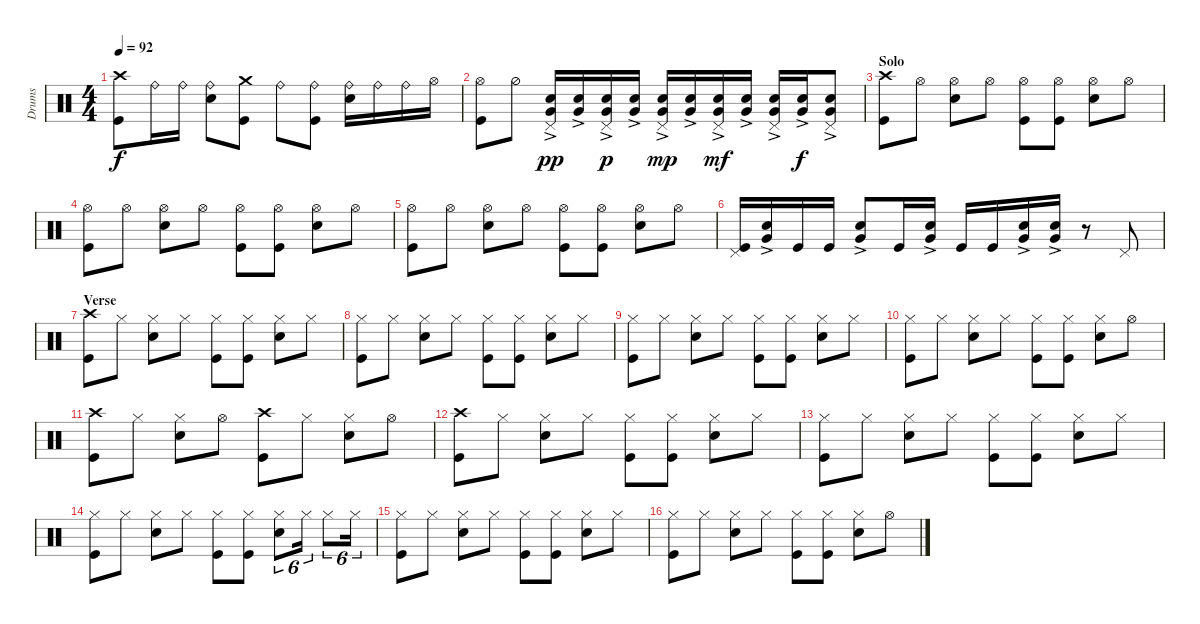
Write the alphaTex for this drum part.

\track ("Drums" "Drums") {instrument percussion}
\staff {score}
\articulation defaults
\ts (4 4)
\tempo 92
\clef neutral
\ks c
("Kick (hit)" "Crash high (hit)").8{dy f} "Ride (bell)".16 "Ride (bell)".16 ("Ride (bell)" "Snare (hit) 2").8 ("Crash medium (hit)" "Kick (hit)").8 "Ride (bell)".8 ("Ride (bell)" "Kick (hit)").8 ("Ride (bell)" "Snare (hit) 2").16 "Ride (bell)".16 "Ride (bell)".16 "Hi-Hat (open)".16 |
("Kick (hit)" "Hi-Hat (open)").8 "Hi-Hat (half)".8 ("Snare (hit) 2" "Very Low Tom (hit)"{ac} "Pedal Hi-Hat (hit)").16{dy pp} ("Snare (hit) 2" "Very Low Tom (hit)"{ac}).16 ("Snare (hit) 2" "Very Low Tom (hit)"{ac} "Pedal Hi-Hat (hit)").16{dy p} ("Snare (hit) 2" "Very Low Tom (hit)"{ac}).16 ("Snare (hit) 2" "Very Low Tom (hit)"{ac} "Pedal Hi-Hat (hit)").16{dy mp} ("Snare (hit) 2" "Very Low Tom (hit)"{ac}).16 ("Snare (hit) 2" "Very Low Tom (hit)"{ac} "Pedal Hi-Hat (hit)").16{dy mf} ("Snare (hit) 2" "Very Low Tom (hit)"{ac}).16 ("Snare (hit) 2" "Very Low Tom (hit)"{ac} "Pedal Hi-Hat (hit)").16 ("Snare (hit) 2" "Very Low Tom (hit)"{ac}).16{dy f} ("Snare (hit) 2" "Very Low Tom (hit)"{ac} "Pedal Hi-Hat (hit)").8 |
\section ("" "Solo")
("Kick (hit)" "Crash high (hit)").8 "Hi-Hat (open)".8 ("Hi-Hat (open)" "Snare (hit) 2").8 "Hi-Hat (open)".8 ("Hi-Hat (open)" "Kick (hit)").8 ("Hi-Hat (open)" "Kick (hit)").8 ("Hi-Hat (open)" "Snare (hit) 2").8 "Hi-Hat (open)".8 |
("Kick (hit)" "Hi-Hat (open)").8 "Hi-Hat (open)".8 ("Hi-Hat (open)" "Snare (hit) 2").8 "Hi-Hat (open)".8 ("Hi-Hat (open)" "Kick (hit)").8 ("Hi-Hat (open)" "Kick (hit)").8 ("Hi-Hat (open)" "Snare (hit) 2").8 "Hi-Hat (open)".8 |
("Kick (hit)" "Hi-Hat (open)").8 "Hi-Hat (open)".8 ("Hi-Hat (open)" "Snare (hit) 2").8 "Hi-Hat (open)".8 ("Hi-Hat (open)" "Kick (hit)").8 ("Hi-Hat (open)" "Kick (hit)").8 ("Hi-Hat (open)" "Snare (hit) 2").8 "Hi-Hat (open)".8 |
("Kick (hit)" "Pedal Hi-Hat (hit)").16 ("Very Low Tom (hit)"{ac} "Snare (hit) 2").16 "Kick (hit)".16 "Kick (hit)".16 ("Very Low Tom (hit)"{ac} "Snare (hit) 2").8 "Kick (hit)".16 ("Very Low Tom (hit)"{ac} "Snare (hit) 2").16 "Kick (hit)".16 "Kick (hit)".16 ("Very Low Tom (hit)"{ac} "Snare (hit) 2").16 ("Very Low Tom (hit)"{ac} "Snare (hit) 2").16 r.8 "Pedal Hi-Hat (hit)".8 |
\section ("" "Verse")
("Kick (hit)" "Crash high (hit)").8 "Hi-Hat (closed)".8 ("Hi-Hat (closed)" "Snare (hit) 2").8 "Hi-Hat (closed)".8 ("Kick (hit)" "Hi-Hat (closed)").8 ("Hi-Hat (closed)" "Kick (hit)").8 ("Hi-Hat (closed)" "Snare (hit) 2").8 "Hi-Hat (closed)".8 |
("Kick (hit)" "Hi-Hat (closed)").8 "Hi-Hat (closed)".8 ("Hi-Hat (closed)" "Snare (hit) 2").8 "Hi-Hat (closed)".8 ("Kick (hit)" "Hi-Hat (closed)").8 ("Hi-Hat (closed)" "Kick (hit)").8 ("Hi-Hat (closed)" "Snare (hit) 2").8 "Hi-Hat (closed)".8 |
("Kick (hit)" "Hi-Hat (closed)").8 "Hi-Hat (closed)".8 ("Hi-Hat (closed)" "Snare (hit) 2").8 "Hi-Hat (closed)".8 ("Kick (hit)" "Hi-Hat (closed)").8 ("Hi-Hat (closed)" "Kick (hit)").8 ("Hi-Hat (closed)" "Snare (hit) 2").8 "Hi-Hat (closed)".8 |
("Kick (hit)" "Hi-Hat (closed)").8 "Hi-Hat (closed)".8 ("Hi-Hat (closed)" "Snare (hit) 2").8 "Hi-Hat (closed)".8 ("Kick (hit)" "Hi-Hat (closed)").8 ("Hi-Hat (closed)" "Kick (hit)").8 ("Hi-Hat (closed)" "Snare (hit) 2").8 "Hi-Hat (open)".8 |
("Kick (hit)" "Crash high (hit)").8 "Hi-Hat (closed)".8 ("Hi-Hat (closed)" "Snare (hit) 2").8 "Hi-Hat (open)".8 ("Kick (hit)" "Crash high (hit)").8 "Hi-Hat (closed)".8 ("Hi-Hat (closed)" "Snare (hit) 2").8 "Hi-Hat (open)".8 |
("Kick (hit)" "Crash high (hit)").8 "Hi-Hat (closed)".8 ("Hi-Hat (closed)" "Snare (hit) 2").8 "Hi-Hat (closed)".8 ("Kick (hit)" "Hi-Hat (closed)").8 ("Hi-Hat (closed)" "Kick (hit)").8 ("Hi-Hat (closed)" "Snare (hit) 2").8 "Hi-Hat (closed)".8 |
("Kick (hit)" "Hi-Hat (closed)").8 "Hi-Hat (closed)".8 ("Hi-Hat (closed)" "Snare (hit) 2").8 "Hi-Hat (closed)".8 ("Kick (hit)" "Hi-Hat (closed)").8 ("Hi-Hat (closed)" "Kick (hit)").8 ("Hi-Hat (closed)" "Snare (hit) 2").8 "Hi-Hat (closed)".8 |
("Kick (hit)" "Hi-Hat (closed)").8 "Hi-Hat (closed)".8 ("Hi-Hat (closed)" "Snare (hit) 2").8 "Hi-Hat (closed)".8 ("Kick (hit)" "Hi-Hat (closed)").8 ("Hi-Hat (closed)" "Kick (hit)").8 ("Hi-Hat (closed)" "Snare (hit) 2").8{tu (6 4)} "Hi-Hat (closed)".16{tu (6 4)} "Hi-Hat (closed)".8{tu (6 4)} "Hi-Hat (closed)".16{tu (6 4)} |
("Kick (hit)" "Hi-Hat (closed)").8 "Hi-Hat (closed)".8 ("Hi-Hat (closed)" "Snare (hit) 2").8 "Hi-Hat (closed)".8 ("Kick (hit)" "Hi-Hat (closed)").8 ("Hi-Hat (closed)" "Kick (hit)").8 ("Hi-Hat (closed)" "Snare (hit) 2").8 "Hi-Hat (closed)".8 |
("Kick (hit)" "Hi-Hat (closed)").8 "Hi-Hat (closed)".8 ("Hi-Hat (closed)" "Snare (hit) 2").8 "Hi-Hat (closed)".8 ("Kick (hit)" "Hi-Hat (closed)").8 ("Hi-Hat (closed)" "Kick (hit)").8 ("Hi-Hat (closed)" "Snare (hit) 2").8 "Hi-Hat (open)".8
